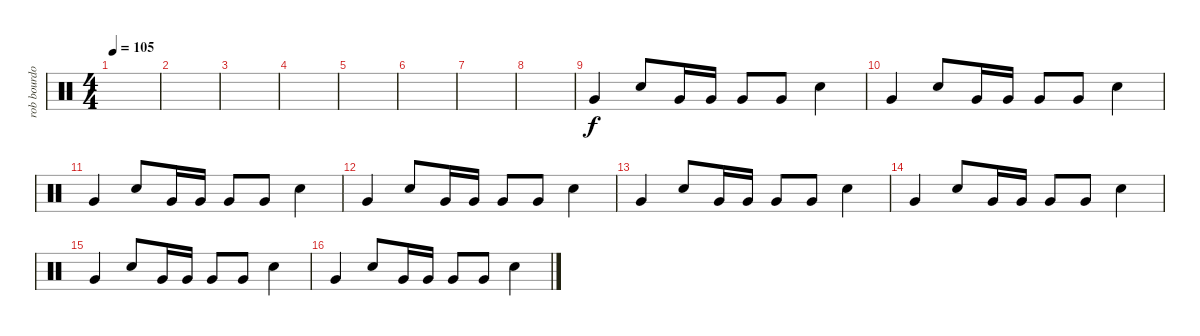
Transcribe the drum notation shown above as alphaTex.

\track ("rob bourdon" "rob bourdo") {instrument percussion}
\staff {score}
\articulation defaults
\ts (4 4)
\tempo 105
\clef neutral
\ks c
|
|
|
|
|
|
|
|
"Very Low Tom (hit)".4 "Snare (hit) 2".8 "Very Low Tom (hit)".16 "Very Low Tom (hit)".16 "Very Low Tom (hit)".8 "Very Low Tom (hit)".8 "Snare (hit) 2".4 |
"Very Low Tom (hit)".4 "Snare (hit) 2".8 "Very Low Tom (hit)".16 "Very Low Tom (hit)".16 "Very Low Tom (hit)".8 "Very Low Tom (hit)".8 "Snare (hit) 2".4 |
"Very Low Tom (hit)".4 "Snare (hit) 2".8 "Very Low Tom (hit)".16 "Very Low Tom (hit)".16 "Very Low Tom (hit)".8 "Very Low Tom (hit)".8 "Snare (hit) 2".4 |
"Very Low Tom (hit)".4 "Snare (hit) 2".8 "Very Low Tom (hit)".16 "Very Low Tom (hit)".16 "Very Low Tom (hit)".8 "Very Low Tom (hit)".8 "Snare (hit) 2".4 |
"Very Low Tom (hit)".4 "Snare (hit) 2".8 "Very Low Tom (hit)".16 "Very Low Tom (hit)".16 "Very Low Tom (hit)".8 "Very Low Tom (hit)".8 "Snare (hit) 2".4 |
"Very Low Tom (hit)".4 "Snare (hit) 2".8 "Very Low Tom (hit)".16 "Very Low Tom (hit)".16 "Very Low Tom (hit)".8 "Very Low Tom (hit)".8 "Snare (hit) 2".4 |
"Very Low Tom (hit)".4 "Snare (hit) 2".8 "Very Low Tom (hit)".16 "Very Low Tom (hit)".16 "Very Low Tom (hit)".8 "Very Low Tom (hit)".8 "Snare (hit) 2".4 |
"Very Low Tom (hit)".4 "Snare (hit) 2".8 "Very Low Tom (hit)".16 "Very Low Tom (hit)".16 "Very Low Tom (hit)".8 "Very Low Tom (hit)".8 "Snare (hit) 2".4
